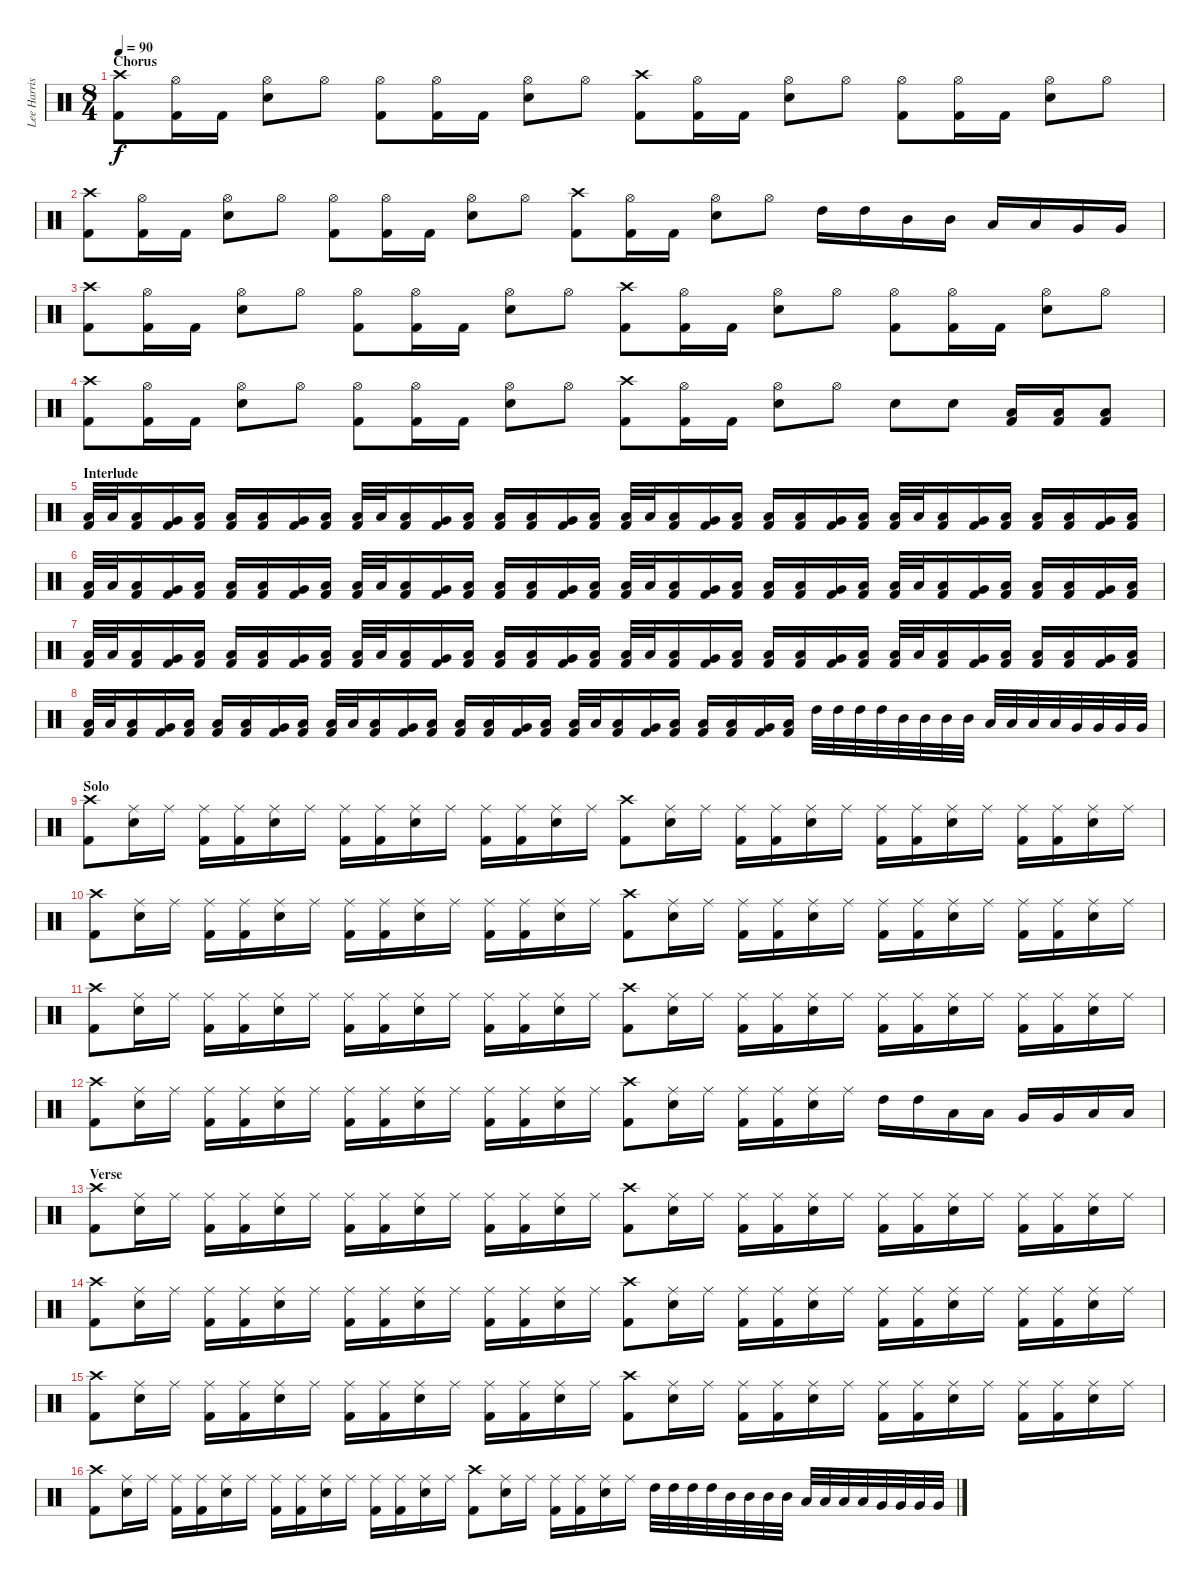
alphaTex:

\track ("Lee Harris" "Lee Harris") {instrument percussion}
\staff {score}
\articulation defaults
\ts (8 4)
\section ("" "Chorus")
\tempo 90
\clef neutral
\ks c
("Crash high (hit)" "Kick (hit) 2").8{dy f} ("Hi-Hat (open)" "Kick (hit) 2").16 "Kick (hit) 2".16 ("Hi-Hat (open)" "Electric Snare (hit)").8 "Hi-Hat (open)".8 ("Hi-Hat (open)" "Kick (hit) 2").8 ("Hi-Hat (open)" "Kick (hit) 2").16 "Kick (hit) 2".16 ("Hi-Hat (open)" "Electric Snare (hit)").8 "Hi-Hat (open)".8 ("Crash high (hit)" "Kick (hit) 2").8 ("Hi-Hat (open)" "Kick (hit) 2").16 "Kick (hit) 2".16 ("Hi-Hat (open)" "Electric Snare (hit)").8 "Hi-Hat (open)".8 ("Hi-Hat (open)" "Kick (hit) 2").8 ("Hi-Hat (open)" "Kick (hit) 2").16 "Kick (hit) 2".16 ("Hi-Hat (open)" "Electric Snare (hit)").8 "Hi-Hat (open)".8 |
("Crash high (hit)" "Kick (hit) 2").8 ("Hi-Hat (open)" "Kick (hit) 2").16 "Kick (hit) 2".16 ("Hi-Hat (open)" "Electric Snare (hit)").8 "Hi-Hat (open)".8 ("Hi-Hat (open)" "Kick (hit) 2").8 ("Hi-Hat (open)" "Kick (hit) 2").16 "Kick (hit) 2".16 ("Hi-Hat (open)" "Electric Snare (hit)").8 "Hi-Hat (open)".8 ("Crash high (hit)" "Kick (hit) 2").8 ("Hi-Hat (open)" "Kick (hit) 2").16 "Kick (hit) 2".16 ("Hi-Hat (open)" "Electric Snare (hit)").8 "Hi-Hat (open)".8 "High Tom (hit)".16 "High Tom (hit)".16 "Mid Tom (hit)".16 "Mid Tom (hit)".16 "Low Tom (hit)".16 "Low Tom (hit)".16 "Very Low Tom (hit)".16 "Very Low Tom (hit)".16 |
("Crash high (hit)" "Kick (hit) 2").8 ("Hi-Hat (open)" "Kick (hit) 2").16 "Kick (hit) 2".16 ("Hi-Hat (open)" "Electric Snare (hit)").8 "Hi-Hat (open)".8 ("Hi-Hat (open)" "Kick (hit) 2").8 ("Hi-Hat (open)" "Kick (hit) 2").16 "Kick (hit) 2".16 ("Hi-Hat (open)" "Electric Snare (hit)").8 "Hi-Hat (open)".8 ("Crash high (hit)" "Kick (hit) 2").8 ("Hi-Hat (open)" "Kick (hit) 2").16 "Kick (hit) 2".16 ("Hi-Hat (open)" "Electric Snare (hit)").8 "Hi-Hat (open)".8 ("Hi-Hat (open)" "Kick (hit) 2").8 ("Hi-Hat (open)" "Kick (hit) 2").16 "Kick (hit) 2".16 ("Hi-Hat (open)" "Electric Snare (hit)").8 "Hi-Hat (open)".8 |
("Crash high (hit)" "Kick (hit) 2").8 ("Hi-Hat (open)" "Kick (hit) 2").16 "Kick (hit) 2".16 ("Hi-Hat (open)" "Electric Snare (hit)").8 "Hi-Hat (open)".8 ("Hi-Hat (open)" "Kick (hit) 2").8 ("Hi-Hat (open)" "Kick (hit) 2").16 "Kick (hit) 2".16 ("Hi-Hat (open)" "Electric Snare (hit)").8 "Hi-Hat (open)".8 ("Crash high (hit)" "Kick (hit) 2").8 ("Hi-Hat (open)" "Kick (hit) 2").16 "Kick (hit) 2".16 ("Hi-Hat (open)" "Electric Snare (hit)").8 "Hi-Hat (open)".8 "Electric Snare (hit)".8 "Electric Snare (hit)".8 ("Low Floor Tom (hit)" "Kick (hit) 2").16 ("Low Floor Tom (hit)" "Kick (hit) 2").16 ("Low Floor Tom (hit)" "Kick (hit) 2").8 |
\section ("" "Interlude")
("Low Floor Tom (hit)" "Kick (hit) 2").32 "Low Floor Tom (hit)".32 ("Low Floor Tom (hit)" "Kick (hit) 2").16 ("Very Low Tom (hit)" "Kick (hit) 2").16 ("Low Floor Tom (hit)" "Kick (hit) 2").16 ("Low Floor Tom (hit)" "Kick (hit) 2").16 ("Low Floor Tom (hit)" "Kick (hit) 2").16 ("Very Low Tom (hit)" "Kick (hit) 2").16 ("Low Floor Tom (hit)" "Kick (hit) 2").16 ("Low Floor Tom (hit)" "Kick (hit) 2").32 "Low Floor Tom (hit)".32 ("Low Floor Tom (hit)" "Kick (hit) 2").16 ("Very Low Tom (hit)" "Kick (hit) 2").16 ("Low Floor Tom (hit)" "Kick (hit) 2").16 ("Low Floor Tom (hit)" "Kick (hit) 2").16 ("Low Floor Tom (hit)" "Kick (hit) 2").16 ("Very Low Tom (hit)" "Kick (hit) 2").16 ("Low Floor Tom (hit)" "Kick (hit) 2").16 ("Low Floor Tom (hit)" "Kick (hit) 2").32 "Low Floor Tom (hit)".32 ("Low Floor Tom (hit)" "Kick (hit) 2").16 ("Very Low Tom (hit)" "Kick (hit) 2").16 ("Low Floor Tom (hit)" "Kick (hit) 2").16 ("Low Floor Tom (hit)" "Kick (hit) 2").16 ("Low Floor Tom (hit)" "Kick (hit) 2").16 ("Very Low Tom (hit)" "Kick (hit) 2").16 ("Low Floor Tom (hit)" "Kick (hit) 2").16 ("Low Floor Tom (hit)" "Kick (hit) 2").32 "Low Floor Tom (hit)".32 ("Low Floor Tom (hit)" "Kick (hit) 2").16 ("Very Low Tom (hit)" "Kick (hit) 2").16 ("Low Floor Tom (hit)" "Kick (hit) 2").16 ("Low Floor Tom (hit)" "Kick (hit) 2").16 ("Low Floor Tom (hit)" "Kick (hit) 2").16 ("Very Low Tom (hit)" "Kick (hit) 2").16 ("Low Floor Tom (hit)" "Kick (hit) 2").16 |
("Low Floor Tom (hit)" "Kick (hit) 2").32 "Low Floor Tom (hit)".32 ("Low Floor Tom (hit)" "Kick (hit) 2").16 ("Very Low Tom (hit)" "Kick (hit) 2").16 ("Low Floor Tom (hit)" "Kick (hit) 2").16 ("Low Floor Tom (hit)" "Kick (hit) 2").16 ("Low Floor Tom (hit)" "Kick (hit) 2").16 ("Very Low Tom (hit)" "Kick (hit) 2").16 ("Low Floor Tom (hit)" "Kick (hit) 2").16 ("Low Floor Tom (hit)" "Kick (hit) 2").32 "Low Floor Tom (hit)".32 ("Low Floor Tom (hit)" "Kick (hit) 2").16 ("Very Low Tom (hit)" "Kick (hit) 2").16 ("Low Floor Tom (hit)" "Kick (hit) 2").16 ("Low Floor Tom (hit)" "Kick (hit) 2").16 ("Low Floor Tom (hit)" "Kick (hit) 2").16 ("Very Low Tom (hit)" "Kick (hit) 2").16 ("Low Floor Tom (hit)" "Kick (hit) 2").16 ("Low Floor Tom (hit)" "Kick (hit) 2").32 "Low Floor Tom (hit)".32 ("Low Floor Tom (hit)" "Kick (hit) 2").16 ("Very Low Tom (hit)" "Kick (hit) 2").16 ("Low Floor Tom (hit)" "Kick (hit) 2").16 ("Low Floor Tom (hit)" "Kick (hit) 2").16 ("Low Floor Tom (hit)" "Kick (hit) 2").16 ("Very Low Tom (hit)" "Kick (hit) 2").16 ("Low Floor Tom (hit)" "Kick (hit) 2").16 ("Low Floor Tom (hit)" "Kick (hit) 2").32 "Low Floor Tom (hit)".32 ("Low Floor Tom (hit)" "Kick (hit) 2").16 ("Very Low Tom (hit)" "Kick (hit) 2").16 ("Low Floor Tom (hit)" "Kick (hit) 2").16 ("Low Floor Tom (hit)" "Kick (hit) 2").16 ("Low Floor Tom (hit)" "Kick (hit) 2").16 ("Very Low Tom (hit)" "Kick (hit) 2").16 ("Low Floor Tom (hit)" "Kick (hit) 2").16 |
("Low Floor Tom (hit)" "Kick (hit) 2").32 "Low Floor Tom (hit)".32 ("Low Floor Tom (hit)" "Kick (hit) 2").16 ("Very Low Tom (hit)" "Kick (hit) 2").16 ("Low Floor Tom (hit)" "Kick (hit) 2").16 ("Low Floor Tom (hit)" "Kick (hit) 2").16 ("Low Floor Tom (hit)" "Kick (hit) 2").16 ("Very Low Tom (hit)" "Kick (hit) 2").16 ("Low Floor Tom (hit)" "Kick (hit) 2").16 ("Low Floor Tom (hit)" "Kick (hit) 2").32 "Low Floor Tom (hit)".32 ("Low Floor Tom (hit)" "Kick (hit) 2").16 ("Very Low Tom (hit)" "Kick (hit) 2").16 ("Low Floor Tom (hit)" "Kick (hit) 2").16 ("Low Floor Tom (hit)" "Kick (hit) 2").16 ("Low Floor Tom (hit)" "Kick (hit) 2").16 ("Very Low Tom (hit)" "Kick (hit) 2").16 ("Low Floor Tom (hit)" "Kick (hit) 2").16 ("Low Floor Tom (hit)" "Kick (hit) 2").32 "Low Floor Tom (hit)".32 ("Low Floor Tom (hit)" "Kick (hit) 2").16 ("Very Low Tom (hit)" "Kick (hit) 2").16 ("Low Floor Tom (hit)" "Kick (hit) 2").16 ("Low Floor Tom (hit)" "Kick (hit) 2").16 ("Low Floor Tom (hit)" "Kick (hit) 2").16 ("Very Low Tom (hit)" "Kick (hit) 2").16 ("Low Floor Tom (hit)" "Kick (hit) 2").16 ("Low Floor Tom (hit)" "Kick (hit) 2").32 "Low Floor Tom (hit)".32 ("Low Floor Tom (hit)" "Kick (hit) 2").16 ("Very Low Tom (hit)" "Kick (hit) 2").16 ("Low Floor Tom (hit)" "Kick (hit) 2").16 ("Low Floor Tom (hit)" "Kick (hit) 2").16 ("Low Floor Tom (hit)" "Kick (hit) 2").16 ("Very Low Tom (hit)" "Kick (hit) 2").16 ("Low Floor Tom (hit)" "Kick (hit) 2").16 |
("Low Floor Tom (hit)" "Kick (hit) 2").32 "Low Floor Tom (hit)".32 ("Low Floor Tom (hit)" "Kick (hit) 2").16 ("Very Low Tom (hit)" "Kick (hit) 2").16 ("Low Floor Tom (hit)" "Kick (hit) 2").16 ("Low Floor Tom (hit)" "Kick (hit) 2").16 ("Low Floor Tom (hit)" "Kick (hit) 2").16 ("Very Low Tom (hit)" "Kick (hit) 2").16 ("Low Floor Tom (hit)" "Kick (hit) 2").16 ("Low Floor Tom (hit)" "Kick (hit) 2").32 "Low Floor Tom (hit)".32 ("Low Floor Tom (hit)" "Kick (hit) 2").16 ("Very Low Tom (hit)" "Kick (hit) 2").16 ("Low Floor Tom (hit)" "Kick (hit) 2").16 ("Low Floor Tom (hit)" "Kick (hit) 2").16 ("Low Floor Tom (hit)" "Kick (hit) 2").16 ("Very Low Tom (hit)" "Kick (hit) 2").16 ("Low Floor Tom (hit)" "Kick (hit) 2").16 ("Low Floor Tom (hit)" "Kick (hit) 2").32 "Low Floor Tom (hit)".32 ("Low Floor Tom (hit)" "Kick (hit) 2").16 ("Very Low Tom (hit)" "Kick (hit) 2").16 ("Low Floor Tom (hit)" "Kick (hit) 2").16 ("Low Floor Tom (hit)" "Kick (hit) 2").16 ("Low Floor Tom (hit)" "Kick (hit) 2").16 ("Very Low Tom (hit)" "Kick (hit) 2").16 ("Low Floor Tom (hit)" "Kick (hit) 2").16 "High Tom (hit)".32 "High Tom (hit)".32 "High Tom (hit)".32 "High Tom (hit)".32 "Mid Tom (hit)".32 "Mid Tom (hit)".32 "Mid Tom (hit)".32 "Mid Tom (hit)".32 "Low Tom (hit)".32 "Low Tom (hit)".32 "Low Tom (hit)".32 "Low Tom (hit)".32 "Very Low Tom (hit)".32 "Very Low Tom (hit)".32 "Very Low Tom (hit)".32 "Very Low Tom (hit)".32 |
\section ("" "Solo")
("Crash high (hit)" "Kick (hit) 2").8 ("Ride (middle)" "Electric Snare (hit)").16 "Ride (middle)".16 ("Ride (middle)" "Kick (hit) 2").16 ("Ride (middle)" "Kick (hit) 2").16 ("Ride (middle)" "Electric Snare (hit)").16 "Ride (middle)".16 ("Ride (middle)" "Kick (hit) 2").16 ("Ride (middle)" "Kick (hit) 2").16 ("Ride (middle)" "Electric Snare (hit)").16 "Ride (middle)".16 ("Ride (middle)" "Kick (hit) 2").16 ("Ride (middle)" "Kick (hit) 2").16 ("Ride (middle)" "Electric Snare (hit)").16 "Ride (middle)".16 ("Crash high (hit)" "Kick (hit) 2").8 ("Ride (middle)" "Electric Snare (hit)").16 "Ride (middle)".16 ("Ride (middle)" "Kick (hit) 2").16 ("Ride (middle)" "Kick (hit) 2").16 ("Ride (middle)" "Electric Snare (hit)").16 "Ride (middle)".16 ("Ride (middle)" "Kick (hit) 2").16 ("Ride (middle)" "Kick (hit) 2").16 ("Ride (middle)" "Electric Snare (hit)").16 "Ride (middle)".16 ("Ride (middle)" "Kick (hit) 2").16 ("Ride (middle)" "Kick (hit) 2").16 ("Ride (middle)" "Electric Snare (hit)").16 "Ride (middle)".16 |
("Crash high (hit)" "Kick (hit) 2").8 ("Ride (middle)" "Electric Snare (hit)").16 "Ride (middle)".16 ("Ride (middle)" "Kick (hit) 2").16 ("Ride (middle)" "Kick (hit) 2").16 ("Ride (middle)" "Electric Snare (hit)").16 "Ride (middle)".16 ("Ride (middle)" "Kick (hit) 2").16 ("Ride (middle)" "Kick (hit) 2").16 ("Ride (middle)" "Electric Snare (hit)").16 "Ride (middle)".16 ("Ride (middle)" "Kick (hit) 2").16 ("Ride (middle)" "Kick (hit) 2").16 ("Ride (middle)" "Electric Snare (hit)").16 "Ride (middle)".16 ("Crash high (hit)" "Kick (hit) 2").8 ("Ride (middle)" "Electric Snare (hit)").16 "Ride (middle)".16 ("Ride (middle)" "Kick (hit) 2").16 ("Ride (middle)" "Kick (hit) 2").16 ("Ride (middle)" "Electric Snare (hit)").16 "Ride (middle)".16 ("Ride (middle)" "Kick (hit) 2").16 ("Ride (middle)" "Kick (hit) 2").16 ("Ride (middle)" "Electric Snare (hit)").16 "Ride (middle)".16 ("Ride (middle)" "Kick (hit) 2").16 ("Ride (middle)" "Kick (hit) 2").16 ("Ride (middle)" "Electric Snare (hit)").16 "Ride (middle)".16 |
("Crash high (hit)" "Kick (hit) 2").8 ("Ride (middle)" "Electric Snare (hit)").16 "Ride (middle)".16 ("Ride (middle)" "Kick (hit) 2").16 ("Ride (middle)" "Kick (hit) 2").16 ("Ride (middle)" "Electric Snare (hit)").16 "Ride (middle)".16 ("Ride (middle)" "Kick (hit) 2").16 ("Ride (middle)" "Kick (hit) 2").16 ("Ride (middle)" "Electric Snare (hit)").16 "Ride (middle)".16 ("Ride (middle)" "Kick (hit) 2").16 ("Ride (middle)" "Kick (hit) 2").16 ("Ride (middle)" "Electric Snare (hit)").16 "Ride (middle)".16 ("Crash high (hit)" "Kick (hit) 2").8 ("Ride (middle)" "Electric Snare (hit)").16 "Ride (middle)".16 ("Ride (middle)" "Kick (hit) 2").16 ("Ride (middle)" "Kick (hit) 2").16 ("Ride (middle)" "Electric Snare (hit)").16 "Ride (middle)".16 ("Ride (middle)" "Kick (hit) 2").16 ("Ride (middle)" "Kick (hit) 2").16 ("Ride (middle)" "Electric Snare (hit)").16 "Ride (middle)".16 ("Ride (middle)" "Kick (hit) 2").16 ("Ride (middle)" "Kick (hit) 2").16 ("Ride (middle)" "Electric Snare (hit)").16 "Ride (middle)".16 |
("Crash high (hit)" "Kick (hit) 2").8 ("Ride (middle)" "Electric Snare (hit)").16 "Ride (middle)".16 ("Ride (middle)" "Kick (hit) 2").16 ("Ride (middle)" "Kick (hit) 2").16 ("Ride (middle)" "Electric Snare (hit)").16 "Ride (middle)".16 ("Ride (middle)" "Kick (hit) 2").16 ("Ride (middle)" "Kick (hit) 2").16 ("Ride (middle)" "Electric Snare (hit)").16 "Ride (middle)".16 ("Ride (middle)" "Kick (hit) 2").16 ("Ride (middle)" "Kick (hit) 2").16 ("Ride (middle)" "Electric Snare (hit)").16 "Ride (middle)".16 ("Crash high (hit)" "Kick (hit) 2").8 ("Ride (middle)" "Electric Snare (hit)").16 "Ride (middle)".16 ("Ride (middle)" "Kick (hit) 2").16 ("Ride (middle)" "Kick (hit) 2").16 ("Ride (middle)" "Electric Snare (hit)").16 "Ride (middle)".16 "High Tom (hit)".16 "High Tom (hit)".16 "Low Tom (hit)".16 "Low Tom (hit)".16 "Very Low Tom (hit)".16 "Very Low Tom (hit)".16 "Low Floor Tom (hit)".16 "Low Floor Tom (hit)".16 |
\section ("" "Verse")
("Crash high (hit)" "Kick (hit) 2").8 ("Ride (middle)" "Electric Snare (hit)").16 "Ride (middle)".16 ("Ride (middle)" "Kick (hit) 2").16 ("Ride (middle)" "Kick (hit) 2").16 ("Ride (middle)" "Electric Snare (hit)").16 "Ride (middle)".16 ("Ride (middle)" "Kick (hit) 2").16 ("Ride (middle)" "Kick (hit) 2").16 ("Ride (middle)" "Electric Snare (hit)").16 "Ride (middle)".16 ("Ride (middle)" "Kick (hit) 2").16 ("Ride (middle)" "Kick (hit) 2").16 ("Ride (middle)" "Electric Snare (hit)").16 "Ride (middle)".16 ("Crash high (hit)" "Kick (hit) 2").8 ("Ride (middle)" "Electric Snare (hit)").16 "Ride (middle)".16 ("Ride (middle)" "Kick (hit) 2").16 ("Ride (middle)" "Kick (hit) 2").16 ("Ride (middle)" "Electric Snare (hit)").16 "Ride (middle)".16 ("Ride (middle)" "Kick (hit) 2").16 ("Ride (middle)" "Kick (hit) 2").16 ("Ride (middle)" "Electric Snare (hit)").16 "Ride (middle)".16 ("Ride (middle)" "Kick (hit) 2").16 ("Ride (middle)" "Kick (hit) 2").16 ("Ride (middle)" "Electric Snare (hit)").16 "Ride (middle)".16 |
("Crash high (hit)" "Kick (hit) 2").8 ("Ride (middle)" "Electric Snare (hit)").16 "Ride (middle)".16 ("Ride (middle)" "Kick (hit) 2").16 ("Ride (middle)" "Kick (hit) 2").16 ("Ride (middle)" "Electric Snare (hit)").16 "Ride (middle)".16 ("Ride (middle)" "Kick (hit) 2").16 ("Ride (middle)" "Kick (hit) 2").16 ("Ride (middle)" "Electric Snare (hit)").16 "Ride (middle)".16 ("Ride (middle)" "Kick (hit) 2").16 ("Ride (middle)" "Kick (hit) 2").16 ("Ride (middle)" "Electric Snare (hit)").16 "Ride (middle)".16 ("Crash high (hit)" "Kick (hit) 2").8 ("Ride (middle)" "Electric Snare (hit)").16 "Ride (middle)".16 ("Ride (middle)" "Kick (hit) 2").16 ("Ride (middle)" "Kick (hit) 2").16 ("Ride (middle)" "Electric Snare (hit)").16 "Ride (middle)".16 ("Ride (middle)" "Kick (hit) 2").16 ("Ride (middle)" "Kick (hit) 2").16 ("Ride (middle)" "Electric Snare (hit)").16 "Ride (middle)".16 ("Ride (middle)" "Kick (hit) 2").16 ("Ride (middle)" "Kick (hit) 2").16 ("Ride (middle)" "Electric Snare (hit)").16 "Ride (middle)".16 |
("Crash high (hit)" "Kick (hit) 2").8 ("Ride (middle)" "Electric Snare (hit)").16 "Ride (middle)".16 ("Ride (middle)" "Kick (hit) 2").16 ("Ride (middle)" "Kick (hit) 2").16 ("Ride (middle)" "Electric Snare (hit)").16 "Ride (middle)".16 ("Ride (middle)" "Kick (hit) 2").16 ("Ride (middle)" "Kick (hit) 2").16 ("Ride (middle)" "Electric Snare (hit)").16 "Ride (middle)".16 ("Ride (middle)" "Kick (hit) 2").16 ("Ride (middle)" "Kick (hit) 2").16 ("Ride (middle)" "Electric Snare (hit)").16 "Ride (middle)".16 ("Crash high (hit)" "Kick (hit) 2").8 ("Ride (middle)" "Electric Snare (hit)").16 "Ride (middle)".16 ("Ride (middle)" "Kick (hit) 2").16 ("Ride (middle)" "Kick (hit) 2").16 ("Ride (middle)" "Electric Snare (hit)").16 "Ride (middle)".16 ("Ride (middle)" "Kick (hit) 2").16 ("Ride (middle)" "Kick (hit) 2").16 ("Ride (middle)" "Electric Snare (hit)").16 "Ride (middle)".16 ("Ride (middle)" "Kick (hit) 2").16 ("Ride (middle)" "Kick (hit) 2").16 ("Ride (middle)" "Electric Snare (hit)").16 "Ride (middle)".16 |
("Crash high (hit)" "Kick (hit) 2").8 ("Ride (middle)" "Electric Snare (hit)").16 "Ride (middle)".16 ("Ride (middle)" "Kick (hit) 2").16 ("Ride (middle)" "Kick (hit) 2").16 ("Ride (middle)" "Electric Snare (hit)").16 "Ride (middle)".16 ("Ride (middle)" "Kick (hit) 2").16 ("Ride (middle)" "Kick (hit) 2").16 ("Ride (middle)" "Electric Snare (hit)").16 "Ride (middle)".16 ("Ride (middle)" "Kick (hit) 2").16 ("Ride (middle)" "Kick (hit) 2").16 ("Ride (middle)" "Electric Snare (hit)").16 "Ride (middle)".16 ("Crash high (hit)" "Kick (hit) 2").8 ("Ride (middle)" "Electric Snare (hit)").16 "Ride (middle)".16 ("Ride (middle)" "Kick (hit) 2").16 ("Ride (middle)" "Kick (hit) 2").16 ("Ride (middle)" "Electric Snare (hit)").16 "Ride (middle)".16 "High Tom (hit)".32 "High Tom (hit)".32 "High Tom (hit)".32 "High Tom (hit)".32 "Mid Tom (hit)".32 "Mid Tom (hit)".32 "Mid Tom (hit)".32 "Mid Tom (hit)".32 "Low Tom (hit)".32 "Low Tom (hit)".32 "Low Tom (hit)".32 "Low Tom (hit)".32 "Very Low Tom (hit)".32 "Very Low Tom (hit)".32 "Very Low Tom (hit)".32 "Very Low Tom (hit)".32
